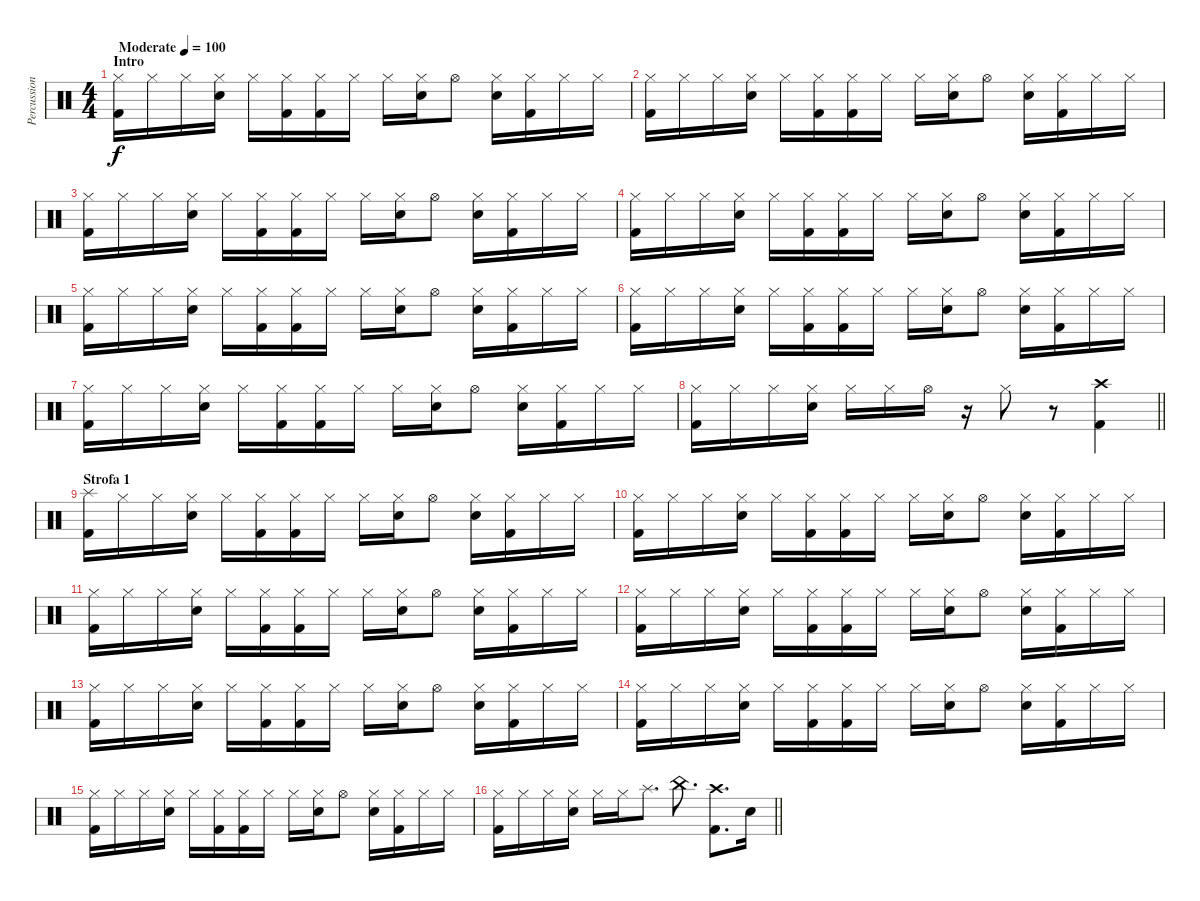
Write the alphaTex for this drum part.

\track ("Percussioni" "Percussion") {instrument percussion}
\staff {score}
\articulation defaults
\ts (4 4)
\section ("" "Intro")
\tempo (100 "Moderate")
\clef neutral
\ks c
("Hi-Hat (closed)" "Kick (hit) 2").16{dy f} "Hi-Hat (closed)".16 "Hi-Hat (closed)".16 ("Hi-Hat (closed)" "Snare (hit) 2").16 "Hi-Hat (closed)".16 ("Hi-Hat (closed)" "Kick (hit) 2").16 ("Hi-Hat (closed)" "Kick (hit) 2").16 "Hi-Hat (closed)".16 "Hi-Hat (closed)".16 ("Hi-Hat (closed)" "Snare (hit) 2").16 "Hi-Hat (open)".8 ("Hi-Hat (closed)" "Snare (hit) 2").16 ("Hi-Hat (closed)" "Kick (hit) 2").16 "Hi-Hat (closed)".16 "Hi-Hat (closed)".16 |
("Hi-Hat (closed)" "Kick (hit) 2").16 "Hi-Hat (closed)".16 "Hi-Hat (closed)".16 ("Hi-Hat (closed)" "Snare (hit) 2").16 "Hi-Hat (closed)".16 ("Hi-Hat (closed)" "Kick (hit) 2").16 ("Hi-Hat (closed)" "Kick (hit) 2").16 "Hi-Hat (closed)".16 "Hi-Hat (closed)".16 ("Hi-Hat (closed)" "Snare (hit) 2").16 "Hi-Hat (open)".8 ("Hi-Hat (closed)" "Snare (hit) 2").16 ("Hi-Hat (closed)" "Kick (hit) 2").16 "Hi-Hat (closed)".16 "Hi-Hat (closed)".16 |
("Hi-Hat (closed)" "Kick (hit) 2").16 "Hi-Hat (closed)".16 "Hi-Hat (closed)".16 ("Hi-Hat (closed)" "Snare (hit) 2").16 "Hi-Hat (closed)".16 ("Hi-Hat (closed)" "Kick (hit) 2").16 ("Hi-Hat (closed)" "Kick (hit) 2").16 "Hi-Hat (closed)".16 "Hi-Hat (closed)".16 ("Hi-Hat (closed)" "Snare (hit) 2").16 "Hi-Hat (open)".8 ("Hi-Hat (closed)" "Snare (hit) 2").16 ("Hi-Hat (closed)" "Kick (hit) 2").16 "Hi-Hat (closed)".16 "Hi-Hat (closed)".16 |
("Hi-Hat (closed)" "Kick (hit) 2").16 "Hi-Hat (closed)".16 "Hi-Hat (closed)".16 ("Hi-Hat (closed)" "Snare (hit) 2").16 "Hi-Hat (closed)".16 ("Hi-Hat (closed)" "Kick (hit) 2").16 ("Hi-Hat (closed)" "Kick (hit) 2").16 "Hi-Hat (closed)".16 "Hi-Hat (closed)".16 ("Hi-Hat (closed)" "Snare (hit) 2").16 "Hi-Hat (open)".8 ("Hi-Hat (closed)" "Snare (hit) 2").16 ("Hi-Hat (closed)" "Kick (hit) 2").16 "Hi-Hat (closed)".16 "Hi-Hat (closed)".16 |
("Hi-Hat (closed)" "Kick (hit) 2").16 "Hi-Hat (closed)".16 "Hi-Hat (closed)".16 ("Hi-Hat (closed)" "Snare (hit) 2").16 "Hi-Hat (closed)".16 ("Hi-Hat (closed)" "Kick (hit) 2").16 ("Hi-Hat (closed)" "Kick (hit) 2").16 "Hi-Hat (closed)".16 "Hi-Hat (closed)".16 ("Hi-Hat (closed)" "Snare (hit) 2").16 "Hi-Hat (open)".8 ("Hi-Hat (closed)" "Snare (hit) 2").16 ("Hi-Hat (closed)" "Kick (hit) 2").16 "Hi-Hat (closed)".16 "Hi-Hat (closed)".16 |
("Hi-Hat (closed)" "Kick (hit) 2").16 "Hi-Hat (closed)".16 "Hi-Hat (closed)".16 ("Hi-Hat (closed)" "Snare (hit) 2").16 "Hi-Hat (closed)".16 ("Hi-Hat (closed)" "Kick (hit) 2").16 ("Hi-Hat (closed)" "Kick (hit) 2").16 "Hi-Hat (closed)".16 "Hi-Hat (closed)".16 ("Hi-Hat (closed)" "Snare (hit) 2").16 "Hi-Hat (open)".8 ("Hi-Hat (closed)" "Snare (hit) 2").16 ("Hi-Hat (closed)" "Kick (hit) 2").16 "Hi-Hat (closed)".16 "Hi-Hat (closed)".16 |
("Hi-Hat (closed)" "Kick (hit) 2").16 "Hi-Hat (closed)".16 "Hi-Hat (closed)".16 ("Hi-Hat (closed)" "Snare (hit) 2").16 "Hi-Hat (closed)".16 ("Hi-Hat (closed)" "Kick (hit) 2").16 ("Hi-Hat (closed)" "Kick (hit) 2").16 "Hi-Hat (closed)".16 "Hi-Hat (closed)".16 ("Hi-Hat (closed)" "Snare (hit) 2").16 "Hi-Hat (open)".8 ("Hi-Hat (closed)" "Snare (hit) 2").16 ("Hi-Hat (closed)" "Kick (hit) 2").16 "Hi-Hat (closed)".16 "Hi-Hat (closed)".16 |
\barLineRight lightlight
("Hi-Hat (closed)" "Kick (hit) 2").16 "Hi-Hat (closed)".16 "Hi-Hat (closed)".16 ("Hi-Hat (closed)" "Snare (hit) 2").16 "Hi-Hat (closed)".16 "Hi-Hat (closed)".16 "Hi-Hat (open)".16 r.16 "Hi-Hat (closed)".8 r.8 ("Crash high (hit)" "Kick (hit) 2").4 |
\section ("" "Strofa 1")
("Splash (hit)" "Kick (hit) 2").16 "Hi-Hat (closed)".16 "Hi-Hat (closed)".16 ("Hi-Hat (closed)" "Snare (hit) 2").16 "Hi-Hat (closed)".16 ("Hi-Hat (closed)" "Kick (hit) 2").16 ("Hi-Hat (closed)" "Kick (hit) 2").16 "Hi-Hat (closed)".16 "Hi-Hat (closed)".16 ("Hi-Hat (closed)" "Snare (hit) 2").16 "Hi-Hat (open)".8 ("Hi-Hat (closed)" "Snare (hit) 2").16 ("Hi-Hat (closed)" "Kick (hit) 2").16 "Hi-Hat (closed)".16 "Hi-Hat (closed)".16 |
("Hi-Hat (closed)" "Kick (hit) 2").16 "Hi-Hat (closed)".16 "Hi-Hat (closed)".16 ("Hi-Hat (closed)" "Snare (hit) 2").16 "Hi-Hat (closed)".16 ("Hi-Hat (closed)" "Kick (hit) 2").16 ("Hi-Hat (closed)" "Kick (hit) 2").16 "Hi-Hat (closed)".16 "Hi-Hat (closed)".16 ("Hi-Hat (closed)" "Snare (hit) 2").16 "Hi-Hat (open)".8 ("Hi-Hat (closed)" "Snare (hit) 2").16 ("Hi-Hat (closed)" "Kick (hit) 2").16 "Hi-Hat (closed)".16 "Hi-Hat (closed)".16 |
("Hi-Hat (closed)" "Kick (hit) 2").16 "Hi-Hat (closed)".16 "Hi-Hat (closed)".16 ("Hi-Hat (closed)" "Snare (hit) 2").16 "Hi-Hat (closed)".16 ("Hi-Hat (closed)" "Kick (hit) 2").16 ("Hi-Hat (closed)" "Kick (hit) 2").16 "Hi-Hat (closed)".16 "Hi-Hat (closed)".16 ("Hi-Hat (closed)" "Snare (hit) 2").16 "Hi-Hat (open)".8 ("Hi-Hat (closed)" "Snare (hit) 2").16 ("Hi-Hat (closed)" "Kick (hit) 2").16 "Hi-Hat (closed)".16 "Hi-Hat (closed)".16 |
("Hi-Hat (closed)" "Kick (hit) 2").16 "Hi-Hat (closed)".16 "Hi-Hat (closed)".16 ("Hi-Hat (closed)" "Snare (hit) 2").16 "Hi-Hat (closed)".16 ("Hi-Hat (closed)" "Kick (hit) 2").16 ("Hi-Hat (closed)" "Kick (hit) 2").16 "Hi-Hat (closed)".16 "Hi-Hat (closed)".16 ("Hi-Hat (closed)" "Snare (hit) 2").16 "Hi-Hat (open)".8 ("Hi-Hat (closed)" "Snare (hit) 2").16 ("Hi-Hat (closed)" "Kick (hit) 2").16 "Hi-Hat (closed)".16 "Hi-Hat (closed)".16 |
("Hi-Hat (closed)" "Kick (hit) 2").16 "Hi-Hat (closed)".16 "Hi-Hat (closed)".16 ("Hi-Hat (closed)" "Snare (hit) 2").16 "Hi-Hat (closed)".16 ("Hi-Hat (closed)" "Kick (hit) 2").16 ("Hi-Hat (closed)" "Kick (hit) 2").16 "Hi-Hat (closed)".16 "Hi-Hat (closed)".16 ("Hi-Hat (closed)" "Snare (hit) 2").16 "Hi-Hat (open)".8 ("Hi-Hat (closed)" "Snare (hit) 2").16 ("Hi-Hat (closed)" "Kick (hit) 2").16 "Hi-Hat (closed)".16 "Hi-Hat (closed)".16 |
("Hi-Hat (closed)" "Kick (hit) 2").16 "Hi-Hat (closed)".16 "Hi-Hat (closed)".16 ("Hi-Hat (closed)" "Snare (hit) 2").16 "Hi-Hat (closed)".16 ("Hi-Hat (closed)" "Kick (hit) 2").16 ("Hi-Hat (closed)" "Kick (hit) 2").16 "Hi-Hat (closed)".16 "Hi-Hat (closed)".16 ("Hi-Hat (closed)" "Snare (hit) 2").16 "Hi-Hat (open)".8 ("Hi-Hat (closed)" "Snare (hit) 2").16 ("Hi-Hat (closed)" "Kick (hit) 2").16 "Hi-Hat (closed)".16 "Hi-Hat (closed)".16 |
("Hi-Hat (closed)" "Kick (hit) 2").16 "Hi-Hat (closed)".16 "Hi-Hat (closed)".16 ("Hi-Hat (closed)" "Snare (hit) 2").16 "Hi-Hat (closed)".16 ("Hi-Hat (closed)" "Kick (hit) 2").16 ("Hi-Hat (closed)" "Kick (hit) 2").16 "Hi-Hat (closed)".16 "Hi-Hat (closed)".16 ("Hi-Hat (closed)" "Snare (hit) 2").16 "Hi-Hat (open)".8 ("Hi-Hat (closed)" "Snare (hit) 2").16 ("Hi-Hat (closed)" "Kick (hit) 2").16 "Hi-Hat (closed)".16 "Hi-Hat (closed)".16 |
\barLineRight lightlight
("Hi-Hat (closed)" "Kick (hit) 2").16 "Hi-Hat (closed)".16 "Hi-Hat (closed)".16 ("Hi-Hat (closed)" "Snare (hit) 2").16 "Hi-Hat (closed)".16 "Hi-Hat (closed)".16 "Splash (hit)".8{d} "China (hit)".8{d} ("Crash high (hit)" "Kick (hit) 2").8{d} "Snare (hit) 2".16
